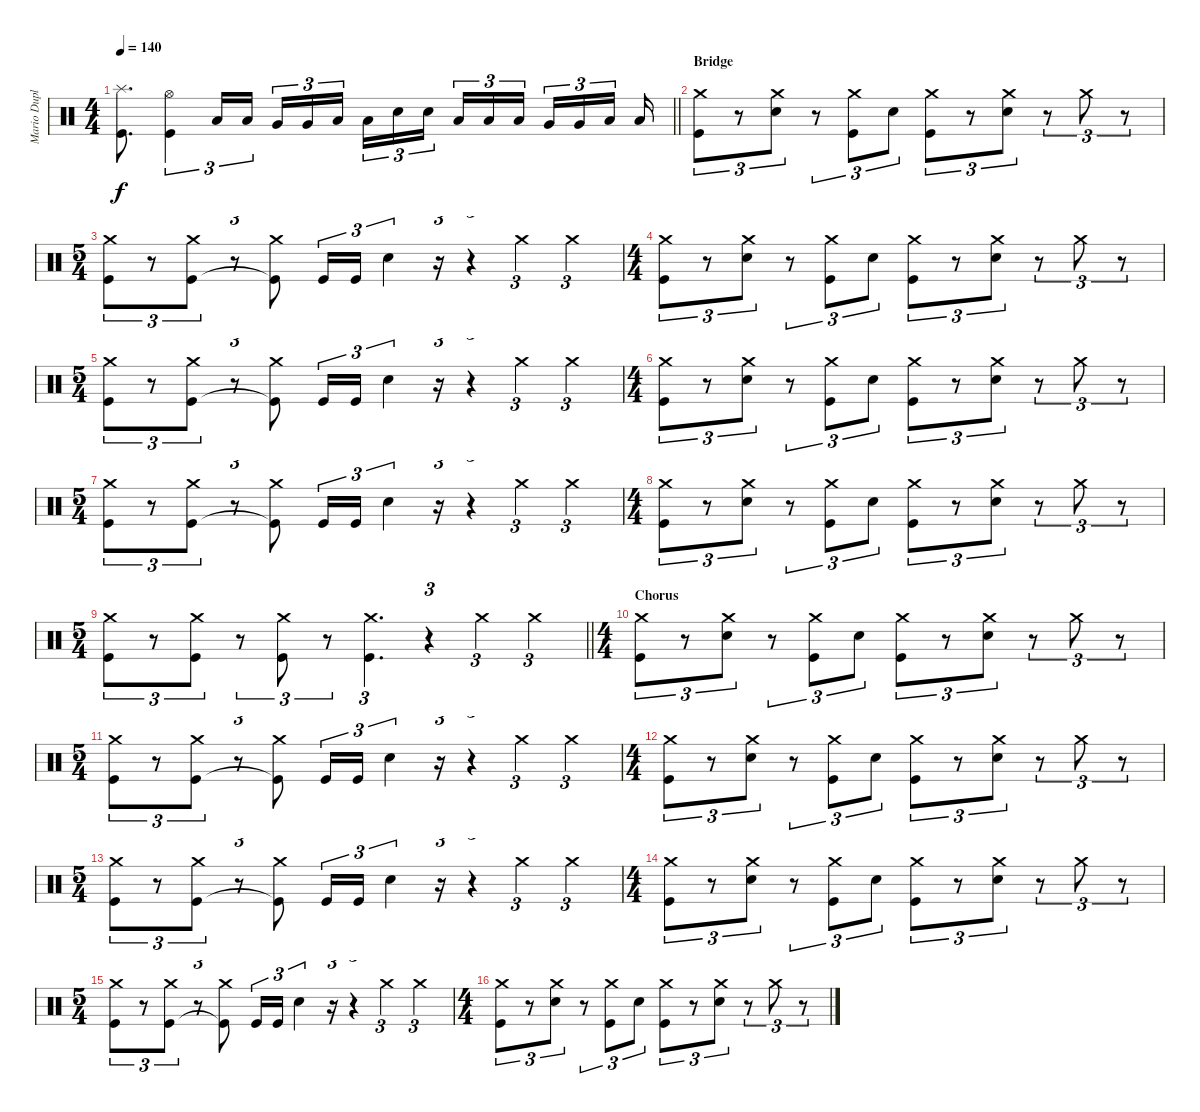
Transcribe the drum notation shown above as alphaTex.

\track ("Mario Duplantier" "Mario Dupl") {instrument percussion}
\staff {score}
\articulation defaults
\ts (4 4)
\tempo 140
\clef neutral
\barLineRight lightlight
\ks c
("Splash (hit)" "Kick (hit)").8{d dy f} ("Hi-Hat (open)" "Kick (hit)").4{tu (3 2)} "Low Tom (hit)".16{tu (3 2)} "Low Tom (hit)".16{tu (3 2) beam splitsecondary} "Very Low Tom (hit)".16{tu (3 2)} "Very Low Tom (hit)".16{tu (3 2)} "Low Floor Tom (hit)".16{tu (3 2) beam splitsecondary} "Low Floor Tom (hit)".16{tu (3 2)} "Electric Snare (hit)".16{tu (3 2)} "Electric Snare (hit)".16{tu (3 2) beam splitsecondary} "Low Tom (hit)".16{tu (3 2)} "Low Tom (hit)".16{tu (3 2)} "Low Tom (hit)".16{tu (3 2) beam splitsecondary} "Very Low Tom (hit)".16{tu (3 2)} "Very Low Tom (hit)".16{tu (3 2)} "Low Floor Tom (hit)".16{tu (3 2) beam splitsecondary} "Low Floor Tom (hit)".16 |
\section ("" "Bridge")
("Crash medium (hit)" "Kick (hit)").8{tu (3 2)} r.8{tu (3 2)} ("Crash medium (hit)" "Electric Snare (hit)").8{tu (3 2)} r.8{tu (3 2)} ("Crash medium (hit)" "Kick (hit)").8{tu (3 2)} "Electric Snare (hit)".8{tu (3 2)} ("Crash medium (hit)" "Kick (hit)").8{tu (3 2)} r.8{tu (3 2)} ("Crash medium (hit)" "Electric Snare (hit)").8{tu (3 2)} r.8{tu (3 2)} "Crash medium (hit)".8{tu (3 2)} r.8{tu (3 2)} |
\ts (5 4)
("Crash medium (hit)" "Kick (hit)").8{tu (3 2)} r.8{tu (3 2)} ("Crash medium (hit)" "Kick (hit)").8{tu (3 2)} r.8{tu (3 2)} ("Crash medium (hit)" "Kick (hit)"{t}).8 "Kick (hit)".16{tu (3 2)} "Kick (hit)".16{tu (3 2)} "Electric Snare (hit)".4{tu (3 2)} r.16{tu (3 2)} r.4{tu (3 2)} "Crash medium (hit)".4{tu (3 2)} "Crash medium (hit)".4{tu (3 2)} |
\ts (4 4)
("Crash medium (hit)" "Kick (hit)").8{tu (3 2)} r.8{tu (3 2)} ("Crash medium (hit)" "Electric Snare (hit)").8{tu (3 2)} r.8{tu (3 2)} ("Crash medium (hit)" "Kick (hit)").8{tu (3 2)} "Electric Snare (hit)".8{tu (3 2)} ("Crash medium (hit)" "Kick (hit)").8{tu (3 2)} r.8{tu (3 2)} ("Crash medium (hit)" "Electric Snare (hit)").8{tu (3 2)} r.8{tu (3 2)} "Crash medium (hit)".8{tu (3 2)} r.8{tu (3 2)} |
\ts (5 4)
("Crash medium (hit)" "Kick (hit)").8{tu (3 2)} r.8{tu (3 2)} ("Crash medium (hit)" "Kick (hit)").8{tu (3 2)} r.8{tu (3 2)} ("Crash medium (hit)" "Kick (hit)"{t}).8 "Kick (hit)".16{tu (3 2)} "Kick (hit)".16{tu (3 2)} "Electric Snare (hit)".4{tu (3 2)} r.16{tu (3 2)} r.4{tu (3 2)} "Crash medium (hit)".4{tu (3 2)} "Crash medium (hit)".4{tu (3 2)} |
\ts (4 4)
("Crash medium (hit)" "Kick (hit)").8{tu (3 2)} r.8{tu (3 2)} ("Crash medium (hit)" "Electric Snare (hit)").8{tu (3 2)} r.8{tu (3 2)} ("Crash medium (hit)" "Kick (hit)").8{tu (3 2)} "Electric Snare (hit)".8{tu (3 2)} ("Crash medium (hit)" "Kick (hit)").8{tu (3 2)} r.8{tu (3 2)} ("Crash medium (hit)" "Electric Snare (hit)").8{tu (3 2)} r.8{tu (3 2)} "Crash medium (hit)".8{tu (3 2)} r.8{tu (3 2)} |
\ts (5 4)
("Crash medium (hit)" "Kick (hit)").8{tu (3 2)} r.8{tu (3 2)} ("Crash medium (hit)" "Kick (hit)").8{tu (3 2)} r.8{tu (3 2)} ("Crash medium (hit)" "Kick (hit)"{t}).8 "Kick (hit)".16{tu (3 2)} "Kick (hit)".16{tu (3 2)} "Electric Snare (hit)".4{tu (3 2)} r.16{tu (3 2)} r.4{tu (3 2)} "Crash medium (hit)".4{tu (3 2)} "Crash medium (hit)".4{tu (3 2)} |
\ts (4 4)
("Crash medium (hit)" "Kick (hit)").8{tu (3 2)} r.8{tu (3 2)} ("Crash medium (hit)" "Electric Snare (hit)").8{tu (3 2)} r.8{tu (3 2)} ("Crash medium (hit)" "Kick (hit)").8{tu (3 2)} "Electric Snare (hit)".8{tu (3 2)} ("Crash medium (hit)" "Kick (hit)").8{tu (3 2)} r.8{tu (3 2)} ("Crash medium (hit)" "Electric Snare (hit)").8{tu (3 2)} r.8{tu (3 2)} "Crash medium (hit)".8{tu (3 2)} r.8{tu (3 2)} |
\ts (5 4)
\barLineRight lightlight
("Crash medium (hit)" "Kick (hit)").8{tu (3 2)} r.8{tu (3 2)} ("Crash medium (hit)" "Kick (hit)").8{tu (3 2)} r.8{tu (3 2)} ("Crash medium (hit)" "Kick (hit)").8{tu (3 2)} r.8{tu (3 2)} ("Crash medium (hit)" "Kick (hit)").4{d tu (3 2)} r.4{tu (3 2)} "Crash medium (hit)".4{tu (3 2)} "Crash medium (hit)".4{tu (3 2)} |
\ts (4 4)
\section ("" "Chorus")
("Crash medium (hit)" "Kick (hit)").8{tu (3 2)} r.8{tu (3 2)} ("Crash medium (hit)" "Electric Snare (hit)").8{tu (3 2)} r.8{tu (3 2)} ("Crash medium (hit)" "Kick (hit)").8{tu (3 2)} "Electric Snare (hit)".8{tu (3 2)} ("Crash medium (hit)" "Kick (hit)").8{tu (3 2)} r.8{tu (3 2)} ("Crash medium (hit)" "Electric Snare (hit)").8{tu (3 2)} r.8{tu (3 2)} "Crash medium (hit)".8{tu (3 2)} r.8{tu (3 2)} |
\ts (5 4)
("Crash medium (hit)" "Kick (hit)").8{tu (3 2)} r.8{tu (3 2)} ("Crash medium (hit)" "Kick (hit)").8{tu (3 2)} r.8{tu (3 2)} ("Crash medium (hit)" "Kick (hit)"{t}).8 "Kick (hit)".16{tu (3 2)} "Kick (hit)".16{tu (3 2)} "Electric Snare (hit)".4{tu (3 2)} r.16{tu (3 2)} r.4{tu (3 2)} "Crash medium (hit)".4{tu (3 2)} "Crash medium (hit)".4{tu (3 2)} |
\ts (4 4)
("Crash medium (hit)" "Kick (hit)").8{tu (3 2)} r.8{tu (3 2)} ("Crash medium (hit)" "Electric Snare (hit)").8{tu (3 2)} r.8{tu (3 2)} ("Crash medium (hit)" "Kick (hit)").8{tu (3 2)} "Electric Snare (hit)".8{tu (3 2)} ("Crash medium (hit)" "Kick (hit)").8{tu (3 2)} r.8{tu (3 2)} ("Crash medium (hit)" "Electric Snare (hit)").8{tu (3 2)} r.8{tu (3 2)} "Crash medium (hit)".8{tu (3 2)} r.8{tu (3 2)} |
\ts (5 4)
("Crash medium (hit)" "Kick (hit)").8{tu (3 2)} r.8{tu (3 2)} ("Crash medium (hit)" "Kick (hit)").8{tu (3 2)} r.8{tu (3 2)} ("Crash medium (hit)" "Kick (hit)"{t}).8 "Kick (hit)".16{tu (3 2)} "Kick (hit)".16{tu (3 2)} "Electric Snare (hit)".4{tu (3 2)} r.16{tu (3 2)} r.4{tu (3 2)} "Crash medium (hit)".4{tu (3 2)} "Crash medium (hit)".4{tu (3 2)} |
\ts (4 4)
("Crash medium (hit)" "Kick (hit)").8{tu (3 2)} r.8{tu (3 2)} ("Crash medium (hit)" "Electric Snare (hit)").8{tu (3 2)} r.8{tu (3 2)} ("Crash medium (hit)" "Kick (hit)").8{tu (3 2)} "Electric Snare (hit)".8{tu (3 2)} ("Crash medium (hit)" "Kick (hit)").8{tu (3 2)} r.8{tu (3 2)} ("Crash medium (hit)" "Electric Snare (hit)").8{tu (3 2)} r.8{tu (3 2)} "Crash medium (hit)".8{tu (3 2)} r.8{tu (3 2)} |
\ts (5 4)
("Crash medium (hit)" "Kick (hit)").8{tu (3 2)} r.8{tu (3 2)} ("Crash medium (hit)" "Kick (hit)").8{tu (3 2)} r.8{tu (3 2)} ("Crash medium (hit)" "Kick (hit)"{t}).8 "Kick (hit)".16{tu (3 2)} "Kick (hit)".16{tu (3 2)} "Electric Snare (hit)".4{tu (3 2)} r.16{tu (3 2)} r.4{tu (3 2)} "Crash medium (hit)".4{tu (3 2)} "Crash medium (hit)".4{tu (3 2)} |
\ts (4 4)
("Crash medium (hit)" "Kick (hit)").8{tu (3 2)} r.8{tu (3 2)} ("Crash medium (hit)" "Electric Snare (hit)").8{tu (3 2)} r.8{tu (3 2)} ("Crash medium (hit)" "Kick (hit)").8{tu (3 2)} "Electric Snare (hit)".8{tu (3 2)} ("Crash medium (hit)" "Kick (hit)").8{tu (3 2)} r.8{tu (3 2)} ("Crash medium (hit)" "Electric Snare (hit)").8{tu (3 2)} r.8{tu (3 2)} "Crash medium (hit)".8{tu (3 2)} r.8{tu (3 2)}
